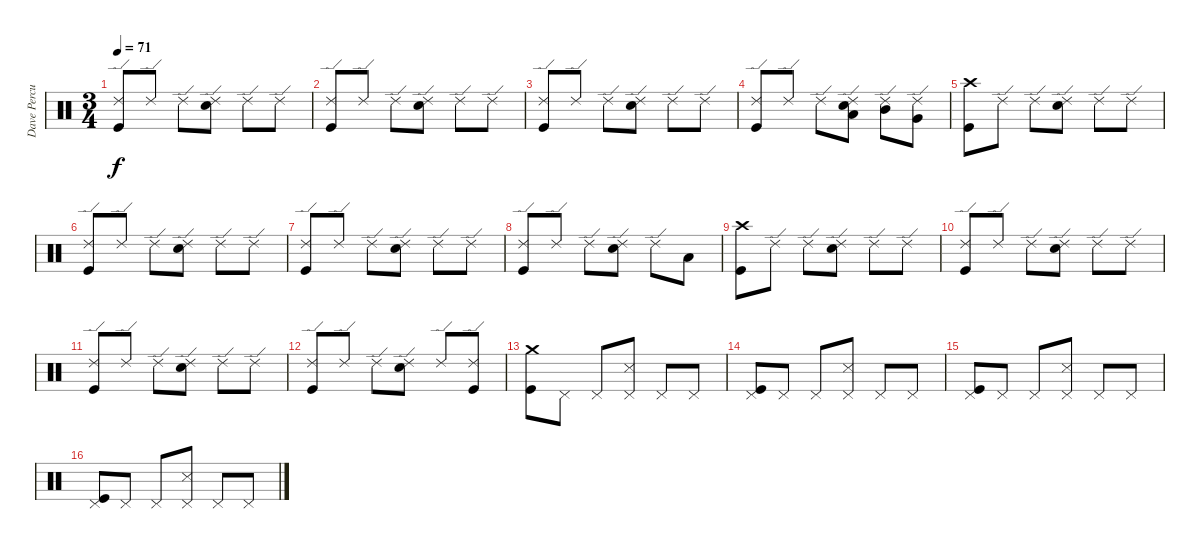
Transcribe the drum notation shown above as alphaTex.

\track ("Dave Percussions" "Dave Percu") {instrument percussion}
\staff {score}
\articulation defaults
\ts (3 4)
\tempo 71
\clef neutral
\ks c
("Ride (edge) 2" "Kick (hit)").8{dy f} "Ride (edge) 2".8 "Ride (edge) 2".8 ("Ride (edge) 2" "Snare (hit) 2").8 "Ride (edge) 2".8 "Ride (edge) 2".8 |
("Ride (edge) 2" "Kick (hit)").8 "Ride (edge) 2".8 "Ride (edge) 2".8 ("Ride (edge) 2" "Snare (hit) 2").8 "Ride (edge) 2".8 "Ride (edge) 2".8 |
("Ride (edge) 2" "Kick (hit)").8 "Ride (edge) 2".8 "Ride (edge) 2".8 ("Ride (edge) 2" "Snare (hit) 2").8 "Ride (edge) 2".8 "Ride (edge) 2".8 |
("Ride (edge) 2" "Kick (hit)").8 "Ride (edge) 2".8 "Ride (edge) 2".8 ("Ride (edge) 2" "Snare (hit) 2" "Low Tom (hit)").8 ("Ride (edge) 2" "Mid Tom (hit)").8 ("Ride (edge) 2" "Very Low Tom (hit)").8 |
("Kick (hit)" "Crash high (hit)").8 "Ride (edge) 2".8 "Ride (edge) 2".8 ("Ride (edge) 2" "Snare (hit) 2").8 "Ride (edge) 2".8 "Ride (edge) 2".8 |
("Ride (edge) 2" "Kick (hit)").8 "Ride (edge) 2".8 "Ride (edge) 2".8 ("Ride (edge) 2" "Snare (hit) 2").8 "Ride (edge) 2".8 "Ride (edge) 2".8 |
("Ride (edge) 2" "Kick (hit)").8 "Ride (edge) 2".8 "Ride (edge) 2".8 ("Ride (edge) 2" "Snare (hit) 2").8 "Ride (edge) 2".8 "Ride (edge) 2".8 |
("Ride (edge) 2" "Kick (hit)").8 "Ride (edge) 2".8 "Ride (edge) 2".8 ("Ride (edge) 2" "Snare (hit) 2").8 "Ride (edge) 2".8 "Low Tom (hit)".8 |
("Crash high (hit)" "Kick (hit)").8 "Ride (edge) 2".8 "Ride (edge) 2".8 ("Ride (edge) 2" "Snare (hit) 2").8 "Ride (edge) 2".8 "Ride (edge) 2".8 |
("Ride (edge) 2" "Kick (hit)").8 "Ride (edge) 2".8 "Ride (edge) 2".8 ("Ride (edge) 2" "Snare (hit) 2").8 "Ride (edge) 2".8 "Ride (edge) 2".8 |
("Ride (edge) 2" "Kick (hit)").8 "Ride (edge) 2".8 "Ride (edge) 2".8 ("Ride (edge) 2" "Snare (hit) 2").8 "Ride (edge) 2".8 "Ride (edge) 2".8 |
("Ride (edge) 2" "Kick (hit)").8 "Ride (edge) 2".8 "Ride (edge) 2".8 ("Ride (edge) 2" "Snare (hit) 2").8 "Ride (edge) 2".8 ("Ride (edge) 2" "Kick (hit)").8 |
("Crash medium (hit)" "Kick (hit)").8 "Pedal Hi-Hat (hit)".8 "Pedal Hi-Hat (hit)".8 ("Pedal Hi-Hat (hit)" "Snare (side stick) 3").8 "Pedal Hi-Hat (hit)".8 "Pedal Hi-Hat (hit)".8 |
("Pedal Hi-Hat (hit)" "Kick (hit)").8 "Pedal Hi-Hat (hit)".8 "Pedal Hi-Hat (hit)".8 ("Pedal Hi-Hat (hit)" "Snare (side stick) 3").8 "Pedal Hi-Hat (hit)".8 "Pedal Hi-Hat (hit)".8 |
("Pedal Hi-Hat (hit)" "Kick (hit)").8 "Pedal Hi-Hat (hit)".8 "Pedal Hi-Hat (hit)".8 ("Pedal Hi-Hat (hit)" "Snare (side stick) 3").8 "Pedal Hi-Hat (hit)".8 "Pedal Hi-Hat (hit)".8 |
("Pedal Hi-Hat (hit)" "Kick (hit)").8 "Pedal Hi-Hat (hit)".8 "Pedal Hi-Hat (hit)".8 ("Pedal Hi-Hat (hit)" "Snare (side stick) 3").8 "Pedal Hi-Hat (hit)".8 "Pedal Hi-Hat (hit)".8
